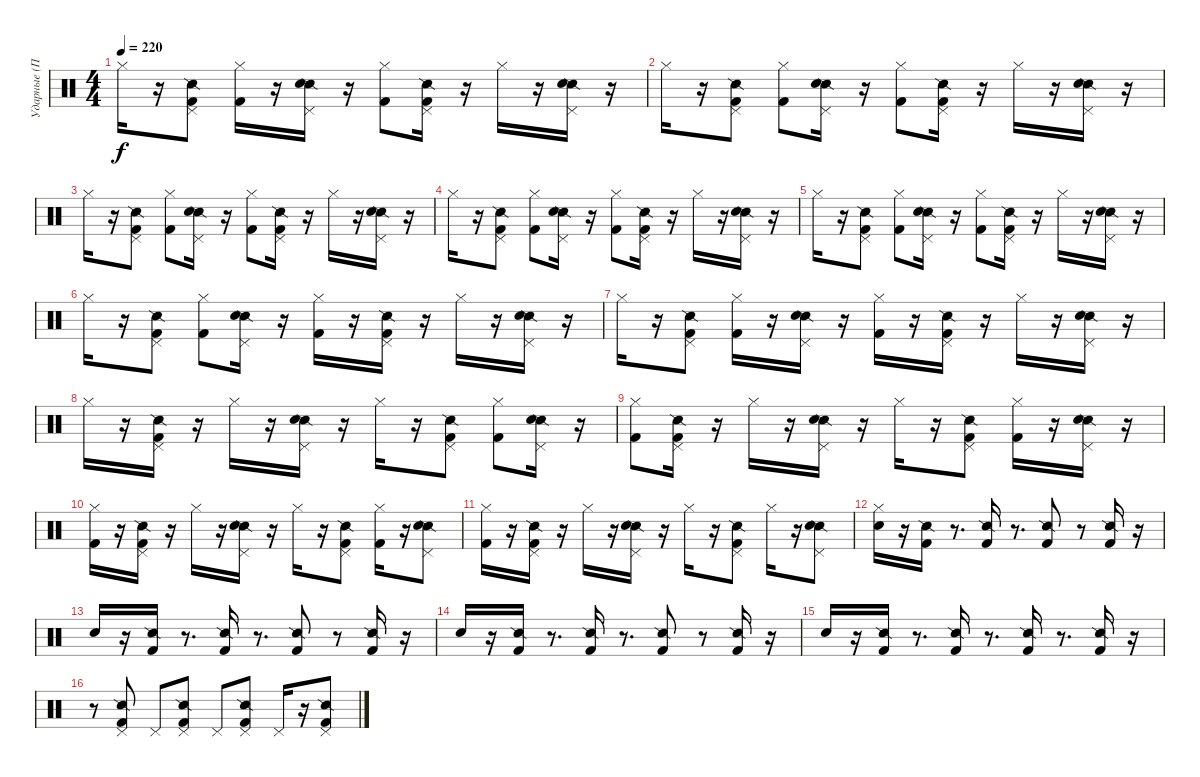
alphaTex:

\track ("Ударные (Потапкин)" "Ударные (П") {instrument percussion}
\staff {score}
\articulation defaults
\ts (4 4)
\tempo 220
\clef neutral
\ks c "Hi-Hat (closed)".16{dy f}
r.16 ("Snare (side stick) 2" "Kick (hit) 2" "Pedal Hi-Hat (hit)").8 ("Kick (hit) 2" "Hi-Hat (closed)").16 r.16 ("Snare (side stick) 2" "Pedal Hi-Hat (hit)" "Snare (hit) 2").16 r.16 ("Hi-Hat (closed)" "Kick (hit) 2").8 ("Snare (side stick) 2" "Pedal Hi-Hat (hit)" "Kick (hit) 2").16 r.16 "Hi-Hat (closed)".16 r.16 ("Snare (side stick) 2" "Pedal Hi-Hat (hit)" "Snare (hit) 2").16 r.16 |
"Hi-Hat (closed)".16 r.16 ("Snare (side stick) 2" "Kick (hit) 2" "Pedal Hi-Hat (hit)").8 ("Kick (hit) 2" "Hi-Hat (closed)").8 ("Snare (side stick) 2" "Pedal Hi-Hat (hit)" "Snare (hit) 2").16 r.16 ("Hi-Hat (closed)" "Kick (hit) 2").8 ("Snare (side stick) 2" "Pedal Hi-Hat (hit)" "Kick (hit) 2").16 r.16 "Hi-Hat (closed)".16 r.16 ("Snare (side stick) 2" "Pedal Hi-Hat (hit)" "Snare (hit) 2").16 r.16 |
"Hi-Hat (closed)".16 r.16 ("Snare (side stick) 2" "Kick (hit) 2" "Pedal Hi-Hat (hit)").8 ("Kick (hit) 2" "Hi-Hat (closed)").8 ("Snare (side stick) 2" "Pedal Hi-Hat (hit)" "Snare (hit) 2").16 r.16 ("Hi-Hat (closed)" "Kick (hit) 2").8 ("Snare (side stick) 2" "Pedal Hi-Hat (hit)" "Kick (hit) 2").16 r.16 "Hi-Hat (closed)".16 r.16 ("Snare (side stick) 2" "Pedal Hi-Hat (hit)" "Snare (hit) 2").16 r.16 |
"Hi-Hat (closed)".16 r.16 ("Snare (side stick) 2" "Kick (hit) 2" "Pedal Hi-Hat (hit)").8 ("Kick (hit) 2" "Hi-Hat (closed)").8 ("Snare (side stick) 2" "Pedal Hi-Hat (hit)" "Snare (hit) 2").16 r.16 ("Hi-Hat (closed)" "Kick (hit) 2").8 ("Snare (side stick) 2" "Pedal Hi-Hat (hit)" "Kick (hit) 2").16 r.16 "Hi-Hat (closed)".16 r.16 ("Snare (side stick) 2" "Pedal Hi-Hat (hit)" "Snare (hit) 2").16 r.16 |
"Hi-Hat (closed)".16 r.16 ("Snare (side stick) 2" "Kick (hit) 2" "Pedal Hi-Hat (hit)").8 ("Kick (hit) 2" "Hi-Hat (closed)").8 ("Snare (side stick) 2" "Pedal Hi-Hat (hit)" "Snare (hit) 2").16 r.16 ("Hi-Hat (closed)" "Kick (hit) 2").8 ("Snare (side stick) 2" "Pedal Hi-Hat (hit)" "Kick (hit) 2").16 r.16 "Hi-Hat (closed)".16 r.16 ("Snare (side stick) 2" "Pedal Hi-Hat (hit)" "Snare (hit) 2").16 r.16 |
"Hi-Hat (closed)".16 r.16 ("Snare (side stick) 2" "Kick (hit) 2" "Pedal Hi-Hat (hit)").8 ("Kick (hit) 2" "Hi-Hat (closed)").8 ("Snare (side stick) 2" "Pedal Hi-Hat (hit)" "Snare (hit) 2").16 r.16 ("Hi-Hat (closed)" "Kick (hit) 2").16 r.16 ("Snare (side stick) 2" "Pedal Hi-Hat (hit)" "Kick (hit) 2").16 r.16 "Hi-Hat (closed)".16 r.16 ("Snare (side stick) 2" "Pedal Hi-Hat (hit)" "Snare (hit) 2").16 r.16 |
"Hi-Hat (closed)".16 r.16 ("Snare (side stick) 2" "Kick (hit) 2" "Pedal Hi-Hat (hit)").8 ("Kick (hit) 2" "Hi-Hat (closed)").16 r.16 ("Snare (side stick) 2" "Pedal Hi-Hat (hit)" "Snare (hit) 2").16 r.16 ("Hi-Hat (closed)" "Kick (hit) 2").16 r.16 ("Snare (side stick) 2" "Pedal Hi-Hat (hit)" "Kick (hit) 2").16 r.16 "Hi-Hat (closed)".16 r.16 ("Snare (side stick) 2" "Pedal Hi-Hat (hit)" "Snare (hit) 2").16 r.16 |
"Hi-Hat (closed)".16 r.16 ("Snare (side stick) 2" "Pedal Hi-Hat (hit)" "Kick (hit) 2").16 r.16 "Hi-Hat (closed)".16 r.16 ("Snare (side stick) 2" "Pedal Hi-Hat (hit)" "Snare (hit) 2").16 r.16 "Hi-Hat (closed)".16 r.16 ("Snare (side stick) 2" "Kick (hit) 2" "Pedal Hi-Hat (hit)").8 ("Kick (hit) 2" "Hi-Hat (closed)").8 ("Snare (side stick) 2" "Pedal Hi-Hat (hit)" "Snare (hit) 2").16 r.16 |
("Hi-Hat (closed)" "Kick (hit) 2").8 ("Snare (side stick) 2" "Pedal Hi-Hat (hit)" "Kick (hit) 2").16 r.16 "Hi-Hat (closed)".16 r.16 ("Snare (side stick) 2" "Pedal Hi-Hat (hit)" "Snare (hit) 2").16 r.16 "Hi-Hat (closed)".16 r.16 ("Snare (side stick) 2" "Kick (hit) 2" "Pedal Hi-Hat (hit)").8 ("Kick (hit) 2" "Hi-Hat (closed)").16 r.16 ("Snare (side stick) 2" "Pedal Hi-Hat (hit)" "Snare (hit) 2").16 r.16 |
("Hi-Hat (closed)" "Kick (hit) 2").16 r.16 ("Snare (side stick) 2" "Pedal Hi-Hat (hit)" "Kick (hit) 2").16 r.16 "Hi-Hat (closed)".16 r.16 ("Snare (side stick) 2" "Pedal Hi-Hat (hit)" "Snare (hit) 2").16 r.16 "Hi-Hat (closed)".16 r.16 ("Snare (side stick) 2" "Kick (hit) 2" "Pedal Hi-Hat (hit)").8 ("Kick (hit) 2" "Hi-Hat (closed)").16 r.16 ("Snare (side stick) 2" "Pedal Hi-Hat (hit)" "Snare (hit) 2").8 |
("Hi-Hat (closed)" "Kick (hit) 2").16 r.16 ("Snare (side stick) 2" "Pedal Hi-Hat (hit)" "Kick (hit) 2").16 r.16 "Hi-Hat (closed)".16 r.16 ("Snare (side stick) 2" "Pedal Hi-Hat (hit)" "Snare (hit) 2").16 r.16 "Hi-Hat (closed)".16 r.16 ("Snare (side stick) 2" "Kick (hit) 2" "Pedal Hi-Hat (hit)").8 "Hi-Hat (closed)".16 r.16 ("Snare (side stick) 2" "Pedal Hi-Hat (hit)" "Snare (hit) 2").8 |
("Hi-Hat (closed)" "Snare (hit) 2").16 r.16 ("Snare (side stick) 2" "Kick (hit) 2").16 r.8{d} ("Snare (side stick) 2" "Kick (hit) 2").16 r.8{d} ("Snare (side stick) 2" "Kick (hit) 2").8 r.8 ("Kick (hit) 2" "Snare (side stick) 2").16 r.16 |
"Snare (hit) 2".16 r.16 ("Snare (side stick) 2" "Kick (hit) 2").16 r.8{d} ("Snare (side stick) 2" "Kick (hit) 2").16 r.8{d} ("Snare (side stick) 2" "Kick (hit) 2").8 r.8 ("Kick (hit) 2" "Snare (side stick) 2").16 r.16 |
"Snare (hit) 2".16 r.16 ("Snare (side stick) 2" "Kick (hit) 2").16 r.8{d} ("Snare (side stick) 2" "Kick (hit) 2").16 r.8{d} ("Snare (side stick) 2" "Kick (hit) 2").8 r.8 ("Kick (hit) 2" "Snare (side stick) 2").16 r.16 |
"Snare (hit) 2".16 r.16 ("Snare (side stick) 2" "Kick (hit) 2").16 r.8{d} ("Snare (side stick) 2" "Kick (hit) 2").16 r.8{d} ("Snare (side stick) 2" "Kick (hit) 2").16 r.8{d} ("Kick (hit) 2" "Snare (side stick) 2").16 r.16 |
r.8 ("Pedal Hi-Hat (hit)" "Snare (side stick) 2" "Kick (hit) 2").8 "Pedal Hi-Hat (hit)".8 ("Pedal Hi-Hat (hit)" "Snare (side stick) 2" "Kick (hit) 2").8 "Pedal Hi-Hat (hit)".8 ("Pedal Hi-Hat (hit)" "Snare (side stick) 2" "Kick (hit) 2").8 "Pedal Hi-Hat (hit)".16 r.16 ("Pedal Hi-Hat (hit)" "Kick (hit) 2" "Snare (side stick) 2").8
